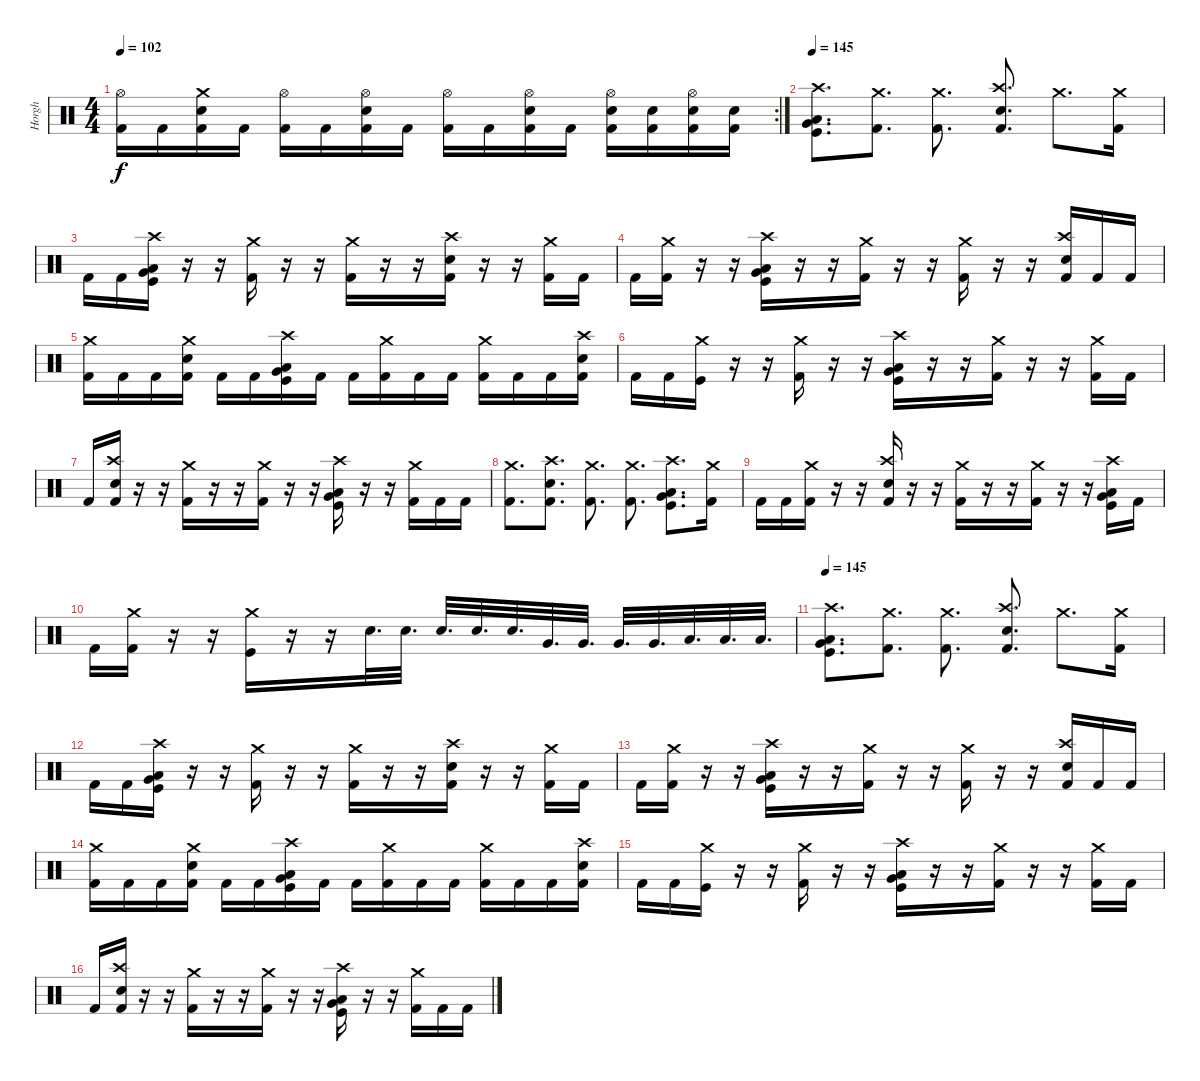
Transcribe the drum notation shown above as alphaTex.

\track ("Horgh" "Horgh") {instrument percussion}
\staff {score}
\articulation defaults
\rc 2
\ts (4 4)
\tempo 102
\clef neutral
\ks c
("Hi-Hat (open)" "Kick (hit) 2").16{dy f} "Kick (hit) 2".16 ("Crash medium (hit)" "Electric Snare (hit)" "Kick (hit) 2").16 "Kick (hit) 2".16 ("Hi-Hat (open)" "Kick (hit) 2").16 "Kick (hit) 2".16 ("Hi-Hat (open)" "Electric Snare (hit)" "Kick (hit) 2").16 "Kick (hit) 2".16 ("Hi-Hat (open)" "Kick (hit) 2").16 "Kick (hit) 2".16 ("Hi-Hat (open)" "Electric Snare (hit)" "Kick (hit) 2").16 "Kick (hit) 2".16 ("Hi-Hat (open)" "Electric Snare (hit)" "Kick (hit) 2").16 ("Electric Snare (hit)" "Kick (hit) 2").16 ("Hi-Hat (open)" "Electric Snare (hit)" "Kick (hit) 2").16 ("Electric Snare (hit)" "Kick (hit) 2").16 |
\tempo 145
("Crash high (hit)" "Kick (hit)" "Very Low Tom (hit)" "Low Tom (hit)").8{d} ("Crash medium (hit)" "Kick (hit) 2").8{d} ("Crash medium (hit)" "Kick (hit) 2").8{d} ("Crash high (hit)" "Snare (hit) 2" "Kick (hit) 2").8{d} "Crash medium (hit)".8{d} ("Crash medium (hit)" "Kick (hit) 2").16 |
"Kick (hit) 2".16 "Kick (hit) 2".16 ("Crash high (hit)" "Very Low Tom (hit)" "Low Tom (hit)" "Kick (hit)").16 r.16 r.16 ("Crash medium (hit)" "Kick (hit) 2").16 r.16 r.16 ("Crash medium (hit)" "Kick (hit) 2").16 r.16 r.16 ("Crash high (hit)" "Snare (hit) 2" "Kick (hit) 2").16 r.16 r.16 ("Crash medium (hit)" "Kick (hit) 2").16 "Kick (hit) 2".16 |
"Kick (hit) 2".16 ("Crash medium (hit)" "Kick (hit) 2").16 r.16 r.16 ("Crash high (hit)" "Low Tom (hit)" "Very Low Tom (hit)" "Kick (hit)").16 r.16 r.16 ("Crash medium (hit)" "Kick (hit) 2").16 r.16 r.16 ("Crash medium (hit)" "Kick (hit) 2").16 r.16 r.16 ("Crash high (hit)" "Snare (hit) 2" "Kick (hit) 2").16 "Kick (hit) 2".16 "Kick (hit) 2".16 |
("Crash medium (hit)" "Kick (hit) 2").16 "Kick (hit) 2".16 "Kick (hit) 2".16 ("Crash medium (hit)" "Snare (hit) 2" "Kick (hit) 2").16 "Kick (hit) 2".16 "Kick (hit) 2".16 ("Crash high (hit)" "Kick (hit)" "Very Low Tom (hit)" "Low Tom (hit)").16 "Kick (hit) 2".16 "Kick (hit) 2".16 ("Crash medium (hit)" "Kick (hit) 2").16 "Kick (hit) 2".16 "Kick (hit) 2".16 ("Crash medium (hit)" "Kick (hit) 2").16 "Kick (hit) 2".16 "Kick (hit) 2".16 ("Crash high (hit)" "Snare (hit) 2" "Kick (hit) 2").16 |
"Kick (hit) 2".16 "Kick (hit) 2".16 ("Crash medium (hit)" "Kick (hit)").16 r.16 r.16 ("Crash medium (hit)" "Kick (hit) 2").16 r.16 r.16 ("Crash high (hit)" "Low Tom (hit)" "Very Low Tom (hit)" "Kick (hit)").16 r.16 r.16 ("Crash medium (hit)" "Kick (hit) 2").16 r.16 r.16 ("Crash medium (hit)" "Kick (hit) 2").16 "Kick (hit) 2".16 |
"Kick (hit) 2".16 ("Crash high (hit)" "Snare (hit) 2" "Kick (hit) 2").16 r.16 r.16 ("Crash medium (hit)" "Kick (hit) 2").16 r.16 r.16 ("Crash medium (hit)" "Kick (hit) 2").16 r.16 r.16 ("Crash high (hit)" "Low Tom (hit)" "Very Low Tom (hit)" "Kick (hit)").16 r.16 r.16 ("Crash medium (hit)" "Kick (hit) 2").16 "Kick (hit) 2".16 "Kick (hit) 2".16 |
("Crash medium (hit)" "Kick (hit) 2").8{d} ("Crash high (hit)" "Snare (hit) 2" "Kick (hit) 2").8{d} ("Crash medium (hit)" "Kick (hit) 2").8{d} ("Crash medium (hit)" "Kick (hit) 2").8{d} ("Crash high (hit)" "Low Tom (hit)" "Very Low Tom (hit)" "Kick (hit)").8{d} ("Crash medium (hit)" "Kick (hit) 2").16 |
"Kick (hit) 2".16 "Kick (hit) 2".16 ("Crash medium (hit)" "Kick (hit) 2").16 r.16 r.16 ("Crash high (hit)" "Snare (hit) 2" "Kick (hit) 2").16 r.16 r.16 ("Crash medium (hit)" "Kick (hit) 2").16 r.16 r.16 ("Crash medium (hit)" "Kick (hit) 2").16 r.16 r.16 ("Crash high (hit)" "Low Tom (hit)" "Very Low Tom (hit)" "Kick (hit)").16 "Kick (hit) 2".16 |
"Kick (hit) 2".16 ("Crash medium (hit)" "Kick (hit) 2").16 r.16 r.16 ("Crash medium (hit)" "Kick (hit)").16 r.16 r.16 "Snare (hit) 2".32{d} "Snare (hit) 2".32{d} "Snare (hit) 2".32{d} "Snare (hit) 2".32{d} "Snare (hit) 2".32{d} "Very Low Tom (hit)".32{d} "Very Low Tom (hit)".32{d} "Very Low Tom (hit)".32{d} "Very Low Tom (hit)".32{d} "Low Tom (hit)".32{d} "Low Tom (hit)".32{d} "Low Tom (hit)".32{d} |
\tempo 145
("Crash high (hit)" "Kick (hit)" "Very Low Tom (hit)" "Low Tom (hit)").8{d} ("Crash medium (hit)" "Kick (hit) 2").8{d} ("Crash medium (hit)" "Kick (hit) 2").8{d} ("Crash high (hit)" "Snare (hit) 2" "Kick (hit) 2").8{d} "Crash medium (hit)".8{d} ("Crash medium (hit)" "Kick (hit) 2").16 |
"Kick (hit) 2".16 "Kick (hit) 2".16 ("Crash high (hit)" "Very Low Tom (hit)" "Low Tom (hit)" "Kick (hit)").16 r.16 r.16 ("Crash medium (hit)" "Kick (hit) 2").16 r.16 r.16 ("Crash medium (hit)" "Kick (hit) 2").16 r.16 r.16 ("Crash high (hit)" "Snare (hit) 2" "Kick (hit) 2").16 r.16 r.16 ("Crash medium (hit)" "Kick (hit) 2").16 "Kick (hit) 2".16 |
"Kick (hit) 2".16 ("Crash medium (hit)" "Kick (hit) 2").16 r.16 r.16 ("Crash high (hit)" "Low Tom (hit)" "Very Low Tom (hit)" "Kick (hit)").16 r.16 r.16 ("Crash medium (hit)" "Kick (hit) 2").16 r.16 r.16 ("Crash medium (hit)" "Kick (hit) 2").16 r.16 r.16 ("Crash high (hit)" "Snare (hit) 2" "Kick (hit) 2").16 "Kick (hit) 2".16 "Kick (hit) 2".16 |
("Crash medium (hit)" "Kick (hit) 2").16 "Kick (hit) 2".16 "Kick (hit) 2".16 ("Crash medium (hit)" "Snare (hit) 2" "Kick (hit) 2").16 "Kick (hit) 2".16 "Kick (hit) 2".16 ("Crash high (hit)" "Kick (hit)" "Very Low Tom (hit)" "Low Tom (hit)").16 "Kick (hit) 2".16 "Kick (hit) 2".16 ("Crash medium (hit)" "Kick (hit) 2").16 "Kick (hit) 2".16 "Kick (hit) 2".16 ("Crash medium (hit)" "Kick (hit) 2").16 "Kick (hit) 2".16 "Kick (hit) 2".16 ("Crash high (hit)" "Snare (hit) 2" "Kick (hit) 2").16 |
"Kick (hit) 2".16 "Kick (hit) 2".16 ("Crash medium (hit)" "Kick (hit)").16 r.16 r.16 ("Crash medium (hit)" "Kick (hit) 2").16 r.16 r.16 ("Crash high (hit)" "Low Tom (hit)" "Very Low Tom (hit)" "Kick (hit)").16 r.16 r.16 ("Crash medium (hit)" "Kick (hit) 2").16 r.16 r.16 ("Crash medium (hit)" "Kick (hit) 2").16 "Kick (hit) 2".16 |
"Kick (hit) 2".16 ("Crash high (hit)" "Snare (hit) 2" "Kick (hit) 2").16 r.16 r.16 ("Crash medium (hit)" "Kick (hit) 2").16 r.16 r.16 ("Crash medium (hit)" "Kick (hit) 2").16 r.16 r.16 ("Crash high (hit)" "Low Tom (hit)" "Very Low Tom (hit)" "Kick (hit)").16 r.16 r.16 ("Crash medium (hit)" "Kick (hit) 2").16 "Kick (hit) 2".16 "Kick (hit) 2".16
